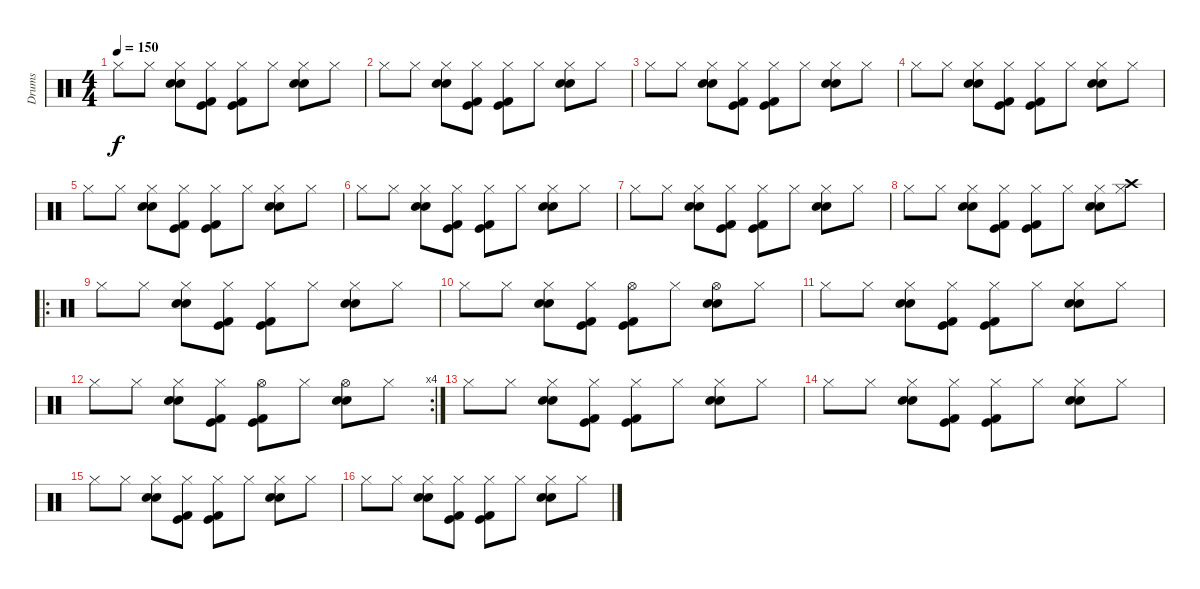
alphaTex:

\track ("Drums" "Drums") {instrument percussion}
\staff {score}
\articulation defaults
\ts (4 4)
\tempo 150
\clef neutral
\ks c "Hi-Hat (closed)".8{dy f} "Hi-Hat (closed)".8
("Hi-Hat (closed)" "Snare (hit) 2" "Electric Snare (hit)").8 ("Hi-Hat (closed)" "Kick (hit) 2" "Kick (hit)").8 ("Hi-Hat (closed)" "Kick (hit) 2" "Kick (hit)").8 "Hi-Hat (closed)".8 ("Hi-Hat (closed)" "Snare (hit) 2" "Electric Snare (hit)").8 "Hi-Hat (closed)".8 |
"Hi-Hat (closed)".8 "Hi-Hat (closed)".8 ("Hi-Hat (closed)" "Snare (hit) 2" "Electric Snare (hit)").8 ("Hi-Hat (closed)" "Kick (hit) 2" "Kick (hit)").8 ("Hi-Hat (closed)" "Kick (hit) 2" "Kick (hit)").8 "Hi-Hat (closed)".8 ("Hi-Hat (closed)" "Snare (hit) 2" "Electric Snare (hit)").8 "Hi-Hat (closed)".8 |
"Hi-Hat (closed)".8 "Hi-Hat (closed)".8 ("Hi-Hat (closed)" "Snare (hit) 2" "Electric Snare (hit)").8 ("Hi-Hat (closed)" "Kick (hit) 2" "Kick (hit)").8 ("Hi-Hat (closed)" "Kick (hit) 2" "Kick (hit)").8 "Hi-Hat (closed)".8 ("Hi-Hat (closed)" "Snare (hit) 2" "Electric Snare (hit)").8 "Hi-Hat (closed)".8 |
"Hi-Hat (closed)".8 "Hi-Hat (closed)".8 ("Hi-Hat (closed)" "Snare (hit) 2" "Electric Snare (hit)").8 ("Hi-Hat (closed)" "Kick (hit) 2" "Kick (hit)").8 ("Hi-Hat (closed)" "Kick (hit) 2" "Kick (hit)").8 "Hi-Hat (closed)".8 ("Hi-Hat (closed)" "Snare (hit) 2" "Electric Snare (hit)").8 "Hi-Hat (closed)".8 |
"Hi-Hat (closed)".8 "Hi-Hat (closed)".8 ("Hi-Hat (closed)" "Snare (hit) 2" "Electric Snare (hit)").8 ("Hi-Hat (closed)" "Kick (hit) 2" "Kick (hit)").8 ("Hi-Hat (closed)" "Kick (hit) 2" "Kick (hit)").8 "Hi-Hat (closed)".8 ("Hi-Hat (closed)" "Snare (hit) 2" "Electric Snare (hit)").8 "Hi-Hat (closed)".8 |
"Hi-Hat (closed)".8 "Hi-Hat (closed)".8 ("Hi-Hat (closed)" "Snare (hit) 2" "Electric Snare (hit)").8 ("Hi-Hat (closed)" "Kick (hit) 2" "Kick (hit)").8 ("Hi-Hat (closed)" "Kick (hit) 2" "Kick (hit)").8 "Hi-Hat (closed)".8 ("Hi-Hat (closed)" "Snare (hit) 2" "Electric Snare (hit)").8 "Hi-Hat (closed)".8 |
"Hi-Hat (closed)".8 "Hi-Hat (closed)".8 ("Hi-Hat (closed)" "Snare (hit) 2" "Electric Snare (hit)").8 ("Hi-Hat (closed)" "Kick (hit) 2" "Kick (hit)").8 ("Hi-Hat (closed)" "Kick (hit) 2" "Kick (hit)").8 "Hi-Hat (closed)".8 ("Hi-Hat (closed)" "Snare (hit) 2" "Electric Snare (hit)").8 "Hi-Hat (closed)".8 |
"Hi-Hat (closed)".8 "Hi-Hat (closed)".8 ("Hi-Hat (closed)" "Snare (hit) 2" "Electric Snare (hit)").8 ("Hi-Hat (closed)" "Kick (hit) 2" "Kick (hit)").8 ("Hi-Hat (closed)" "Kick (hit) 2" "Kick (hit)").8 "Hi-Hat (closed)".8 ("Hi-Hat (closed)" "Snare (hit) 2" "Electric Snare (hit)").8 ("Hi-Hat (closed)" "Crash high (hit)").8 |
\ro "Hi-Hat (closed)".8 "Hi-Hat (closed)".8
("Hi-Hat (closed)" "Snare (hit) 2" "Electric Snare (hit)").8 ("Hi-Hat (closed)" "Kick (hit) 2" "Kick (hit)").8 ("Hi-Hat (closed)" "Kick (hit) 2" "Kick (hit)").8 "Hi-Hat (closed)".8 ("Hi-Hat (closed)" "Snare (hit) 2" "Electric Snare (hit)").8 "Hi-Hat (closed)".8 |
"Hi-Hat (closed)".8 "Hi-Hat (closed)".8 ("Hi-Hat (closed)" "Snare (hit) 2" "Electric Snare (hit)").8 ("Hi-Hat (closed)" "Kick (hit) 2" "Kick (hit)").8 ("Hi-Hat (open)" "Kick (hit) 2" "Kick (hit)").8 "Hi-Hat (closed)".8 ("Hi-Hat (open)" "Snare (hit) 2" "Electric Snare (hit)").8 "Hi-Hat (closed)".8 |
"Hi-Hat (closed)".8 "Hi-Hat (closed)".8 ("Hi-Hat (closed)" "Snare (hit) 2" "Electric Snare (hit)").8 ("Hi-Hat (closed)" "Kick (hit) 2" "Kick (hit)").8 ("Hi-Hat (closed)" "Kick (hit) 2" "Kick (hit)").8 "Hi-Hat (closed)".8 ("Hi-Hat (closed)" "Snare (hit) 2" "Electric Snare (hit)").8 "Hi-Hat (closed)".8 |
\rc 4 "Hi-Hat (closed)".8 "Hi-Hat (closed)".8
("Hi-Hat (closed)" "Snare (hit) 2" "Electric Snare (hit)").8 ("Hi-Hat (closed)" "Kick (hit) 2" "Kick (hit)").8 ("Hi-Hat (open)" "Kick (hit) 2" "Kick (hit)").8 "Hi-Hat (closed)".8 ("Hi-Hat (open)" "Snare (hit) 2" "Electric Snare (hit)").8 "Hi-Hat (closed)".8 |
"Hi-Hat (closed)".8 "Hi-Hat (closed)".8 ("Hi-Hat (closed)" "Snare (hit) 2" "Electric Snare (hit)").8 ("Hi-Hat (closed)" "Kick (hit) 2" "Kick (hit)").8 ("Hi-Hat (closed)" "Kick (hit) 2" "Kick (hit)").8 "Hi-Hat (closed)".8 ("Hi-Hat (closed)" "Snare (hit) 2" "Electric Snare (hit)").8 "Hi-Hat (closed)".8 |
"Hi-Hat (closed)".8 "Hi-Hat (closed)".8 ("Hi-Hat (closed)" "Snare (hit) 2" "Electric Snare (hit)").8 ("Hi-Hat (closed)" "Kick (hit) 2" "Kick (hit)").8 ("Hi-Hat (closed)" "Kick (hit) 2" "Kick (hit)").8 "Hi-Hat (closed)".8 ("Hi-Hat (closed)" "Snare (hit) 2" "Electric Snare (hit)").8 "Hi-Hat (closed)".8 |
"Hi-Hat (closed)".8 "Hi-Hat (closed)".8 ("Hi-Hat (closed)" "Snare (hit) 2" "Electric Snare (hit)").8 ("Hi-Hat (closed)" "Kick (hit) 2" "Kick (hit)").8 ("Hi-Hat (closed)" "Kick (hit) 2" "Kick (hit)").8 "Hi-Hat (closed)".8 ("Hi-Hat (closed)" "Snare (hit) 2" "Electric Snare (hit)").8 "Hi-Hat (closed)".8 |
"Hi-Hat (closed)".8 "Hi-Hat (closed)".8 ("Hi-Hat (closed)" "Snare (hit) 2" "Electric Snare (hit)").8 ("Hi-Hat (closed)" "Kick (hit) 2" "Kick (hit)").8 ("Hi-Hat (closed)" "Kick (hit) 2" "Kick (hit)").8 "Hi-Hat (closed)".8 ("Hi-Hat (closed)" "Snare (hit) 2" "Electric Snare (hit)").8 "Hi-Hat (closed)".8
